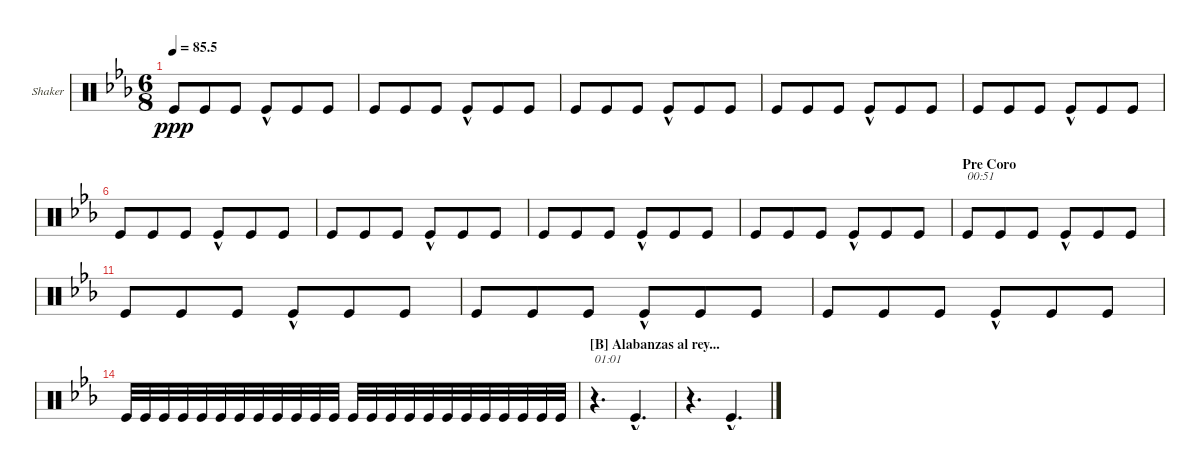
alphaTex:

\defaultSystemsLayout 4
\bracketExtendMode groupsimilarinstruments
\multiTrackTrackNamePolicy allsystems
\firstSystemTrackNameOrientation horizontal
\otherSystemsTrackNameOrientation horizontal
\defaultBarNumberDisplay FirstOfSystem
\track ("Shaker" "Shaker") {instrument percussion}
\staff {score}
\articulation defaults
\ts (6 8)
\tempo
85.5
\accidentals auto
\clef neutral
\ottava regular
\simile none
\scale
0.333333
\ks eb "Kick (hit)".8{dy ppp} "Kick (hit)".8 "Kick (hit)".8 "Kick (hit)"{hac}.8 "Kick (hit)".8 "Kick (hit)".8
|
\scale
0.333333 "Kick (hit)".8 "Kick (hit)".8 "Kick (hit)".8 "Kick (hit)"{hac}.8 "Kick (hit)".8 "Kick (hit)".8 |
\scale
0.333333 "Kick (hit)".8 "Kick (hit)".8 "Kick (hit)".8 "Kick (hit)"{hac}.8 "Kick (hit)".8 "Kick (hit)".8 |
\scale
0.333333 "Kick (hit)".8 "Kick (hit)".8 "Kick (hit)".8 "Kick (hit)"{hac}.8 "Kick (hit)".8 "Kick (hit)".8 |
\scale
0.333333 "Kick (hit)".8 "Kick (hit)".8 "Kick (hit)".8 "Kick (hit)"{hac}.8 "Kick (hit)".8 "Kick (hit)".8 |
\scale
0.333333 "Kick (hit)".8 "Kick (hit)".8 "Kick (hit)".8 "Kick (hit)"{hac}.8 "Kick (hit)".8 "Kick (hit)".8 |
\scale
0.333333 "Kick (hit)".8 "Kick (hit)".8 "Kick (hit)".8 "Kick (hit)"{hac}.8 "Kick (hit)".8 "Kick (hit)".8 |
\scale
0.333333 "Kick (hit)".8 "Kick (hit)".8 "Kick (hit)".8 "Kick (hit)"{hac}.8 "Kick (hit)".8 "Kick (hit)".8 |
\scale
0.333333 "Kick (hit)".8 "Kick (hit)".8 "Kick (hit)".8 "Kick (hit)"{hac}.8 "Kick (hit)".8 "Kick (hit)".8 |
\section ("" "Pre Coro")
\scale
0.333333 "Kick (hit)".8{txt "00:51"} "Kick (hit)".8 "Kick (hit)".8 "Kick (hit)"{hac}.8 "Kick (hit)".8 "Kick (hit)".8 |
\scale
0.333333 "Kick (hit)".8 "Kick (hit)".8 "Kick (hit)".8 "Kick (hit)"{hac}.8 "Kick (hit)".8 "Kick (hit)".8 |
\scale
0.333333 "Kick (hit)".8 "Kick (hit)".8 "Kick (hit)".8 "Kick (hit)"{hac}.8 "Kick (hit)".8 "Kick (hit)".8 |
\scale
0.333333 "Kick (hit)".8 "Kick (hit)".8 "Kick (hit)".8 "Kick (hit)"{hac}.8 "Kick (hit)".8 "Kick (hit)".8 |
\scale
0.333333 "Kick (hit)".32 "Kick (hit)".32 "Kick (hit)".32 "Kick (hit)".32 "Kick (hit)".32 "Kick (hit)".32 "Kick (hit)".32 "Kick (hit)".32 "Kick (hit)".32 "Kick (hit)".32 "Kick (hit)".32 "Kick (hit)".32 "Kick (hit)".32 "Kick (hit)".32 "Kick (hit)".32 "Kick (hit)".32 "Kick (hit)".32 "Kick (hit)".32 "Kick (hit)".32 "Kick (hit)".32 "Kick (hit)".32 "Kick (hit)".32 "Kick (hit)".32 "Kick (hit)".32 |
\section ("B" "Alabanzas al rey...")
\scale
0.333333 r.4{d txt "01:01"} "Kick (hit)"{hac}.4{d} |
\scale
0.333333 r.4{d} "Kick (hit)"{hac}.4{d}
